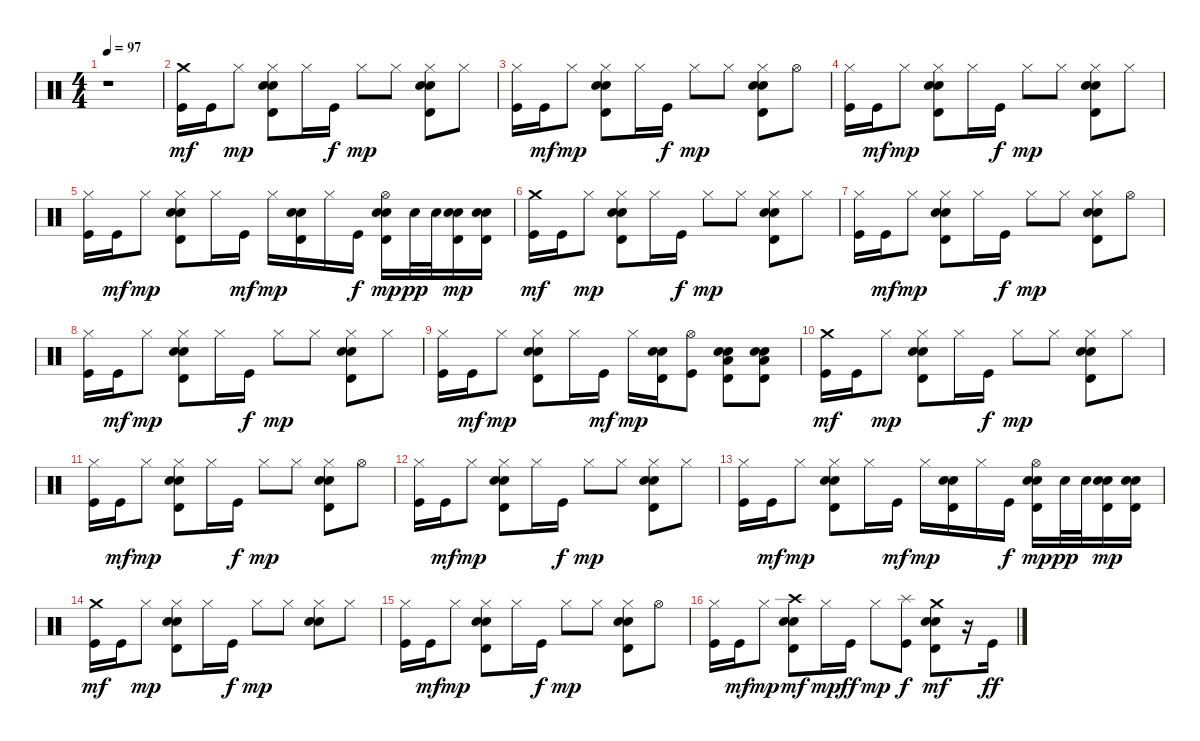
\track "" {instrument percussion}
\staff {score}
\articulation defaults
\ts (4 4)
\section ("" "")
\tempo 97
\clef neutral
\ks c
r.1{dy mf} |
\section ("" "")
("Kick (hit)" "Crash medium (hit)").16 "Kick (hit)".16 "Hi-Hat (closed)".8{dy mp} ("Snare (hit) 2" "Electric Snare (hit)" "Timbale high (hit)" "Hi-Hat (closed)").8 "Hi-Hat (closed)".16 "Kick (hit)".16{dy f} "Hi-Hat (closed)".8{dy mp} "Hi-Hat (closed)".8 ("Snare (hit) 2" "Electric Snare (hit)" "Timbale high (hit)" "Hi-Hat (closed)").8 "Hi-Hat (closed)".8 |
("Kick (hit)" "Hi-Hat (closed)").16 "Kick (hit)".16{dy mf} "Hi-Hat (closed)".8{dy mp} ("Snare (hit) 2" "Electric Snare (hit)" "Timbale high (hit)" "Hi-Hat (closed)").8 "Hi-Hat (closed)".16 "Kick (hit)".16{dy f} "Hi-Hat (closed)".8{dy mp} "Hi-Hat (closed)".8 ("Snare (hit) 2" "Electric Snare (hit)" "Timbale high (hit)" "Hi-Hat (closed)").8 "Hi-Hat (open)".8 |
("Kick (hit)" "Hi-Hat (closed)").16 "Kick (hit)".16{dy mf} "Hi-Hat (closed)".8{dy mp} ("Snare (hit) 2" "Electric Snare (hit)" "Timbale high (hit)" "Hi-Hat (closed)").8 "Hi-Hat (closed)".16 "Kick (hit)".16{dy f} "Hi-Hat (closed)".8{dy mp} "Hi-Hat (closed)".8 ("Snare (hit) 2" "Electric Snare (hit)" "Timbale high (hit)" "Hi-Hat (closed)").8 "Hi-Hat (closed)".8 |
("Kick (hit)" "Hi-Hat (closed)").16 "Kick (hit)".16{dy mf} "Hi-Hat (closed)".8{dy mp} ("Snare (hit) 2" "Electric Snare (hit)" "Timbale high (hit)" "Hi-Hat (closed)").8 "Hi-Hat (closed)".16 "Kick (hit)".16{dy mf} "Hi-Hat (closed)".16{dy mp} ("Snare (hit) 2" "Electric Snare (hit)" "Timbale high (hit)").16 "Hi-Hat (closed)".16 "Kick (hit)".16{dy f} ("Snare (hit) 2" "Electric Snare (hit)" "Timbale high (hit)" "Hi-Hat (open)").16{dy mp} "Snare (hit) 2".32{dy pp} "Snare (hit) 2".32 ("Snare (hit) 2" "Electric Snare (hit)" "Timbale high (hit)").16{dy mp} ("Snare (hit) 2" "Electric Snare (hit)" "Timbale high (hit)").16 |
\section ("" "")
("Kick (hit)" "Crash medium (hit)").16{dy mf} "Kick (hit)".16 "Hi-Hat (closed)".8{dy mp} ("Snare (hit) 2" "Electric Snare (hit)" "Timbale high (hit)" "Hi-Hat (closed)").8 "Hi-Hat (closed)".16 "Kick (hit)".16{dy f} "Hi-Hat (closed)".8{dy mp} "Hi-Hat (closed)".8 ("Snare (hit) 2" "Electric Snare (hit)" "Timbale high (hit)" "Hi-Hat (closed)").8 "Hi-Hat (closed)".8 |
("Kick (hit)" "Hi-Hat (closed)").16 "Kick (hit)".16{dy mf} "Hi-Hat (closed)".8{dy mp} ("Snare (hit) 2" "Electric Snare (hit)" "Timbale high (hit)" "Hi-Hat (closed)").8 "Hi-Hat (closed)".16 "Kick (hit)".16{dy f} "Hi-Hat (closed)".8{dy mp} "Hi-Hat (closed)".8 ("Snare (hit) 2" "Electric Snare (hit)" "Timbale high (hit)" "Hi-Hat (closed)").8 "Hi-Hat (open)".8 |
("Kick (hit)" "Hi-Hat (closed)").16 "Kick (hit)".16{dy mf} "Hi-Hat (closed)".8{dy mp} ("Snare (hit) 2" "Electric Snare (hit)" "Timbale high (hit)" "Hi-Hat (closed)").8 "Hi-Hat (closed)".16 "Kick (hit)".16{dy f} "Hi-Hat (closed)".8{dy mp} "Hi-Hat (closed)".8 ("Snare (hit) 2" "Electric Snare (hit)" "Timbale high (hit)" "Hi-Hat (closed)").8 "Hi-Hat (closed)".8 |
("Kick (hit)" "Hi-Hat (closed)").16 "Kick (hit)".16{dy mf} "Hi-Hat (closed)".8{dy mp} ("Snare (hit) 2" "Electric Snare (hit)" "Timbale high (hit)" "Hi-Hat (closed)").8 "Hi-Hat (closed)".16 "Kick (hit)".16{dy mf} "Hi-Hat (closed)".16{dy mp} ("Snare (hit) 2" "Electric Snare (hit)" "Timbale high (hit)").16 ("Kick (hit)" "Hi-Hat (open)").8 ("Low Tom (hit)" "Snare (hit) 2" "Electric Snare (hit)" "Timbale high (hit)").8 ("Low Tom (hit)" "Snare (hit) 2" "Electric Snare (hit)" "Timbale high (hit)").8 |
\section ("" "")
("Kick (hit)" "Crash medium (hit)").16{dy mf} "Kick (hit)".16 "Hi-Hat (closed)".8{dy mp} ("Snare (hit) 2" "Electric Snare (hit)" "Timbale high (hit)" "Hi-Hat (closed)").8 "Hi-Hat (closed)".16 "Kick (hit)".16{dy f} "Hi-Hat (closed)".8{dy mp} "Hi-Hat (closed)".8 ("Snare (hit) 2" "Electric Snare (hit)" "Timbale high (hit)" "Hi-Hat (closed)").8 "Hi-Hat (closed)".8 |
("Kick (hit)" "Hi-Hat (closed)").16 "Kick (hit)".16{dy mf} "Hi-Hat (closed)".8{dy mp} ("Snare (hit) 2" "Electric Snare (hit)" "Timbale high (hit)" "Hi-Hat (closed)").8 "Hi-Hat (closed)".16 "Kick (hit)".16{dy f} "Hi-Hat (closed)".8{dy mp} "Hi-Hat (closed)".8 ("Snare (hit) 2" "Electric Snare (hit)" "Timbale high (hit)" "Hi-Hat (closed)").8 "Hi-Hat (open)".8 |
("Kick (hit)" "Hi-Hat (closed)").16 "Kick (hit)".16{dy mf} "Hi-Hat (closed)".8{dy mp} ("Snare (hit) 2" "Electric Snare (hit)" "Timbale high (hit)" "Hi-Hat (closed)").8 "Hi-Hat (closed)".16 "Kick (hit)".16{dy f} "Hi-Hat (closed)".8{dy mp} "Hi-Hat (closed)".8 ("Snare (hit) 2" "Electric Snare (hit)" "Timbale high (hit)" "Hi-Hat (closed)").8 "Hi-Hat (closed)".8 |
("Kick (hit)" "Hi-Hat (closed)").16 "Kick (hit)".16{dy mf} "Hi-Hat (closed)".8{dy mp} ("Snare (hit) 2" "Electric Snare (hit)" "Timbale high (hit)" "Hi-Hat (closed)").8 "Hi-Hat (closed)".16 "Kick (hit)".16{dy mf} "Hi-Hat (closed)".16{dy mp} ("Snare (hit) 2" "Electric Snare (hit)" "Timbale high (hit)").16 "Hi-Hat (closed)".16 "Kick (hit)".16{dy f} ("Snare (hit) 2" "Electric Snare (hit)" "Timbale high (hit)" "Hi-Hat (open)").16{dy mp} "Snare (hit) 2".32{dy pp} "Snare (hit) 2".32 ("Snare (hit) 2" "Electric Snare (hit)" "Timbale high (hit)").16{dy mp} ("Snare (hit) 2" "Electric Snare (hit)" "Timbale high (hit)").16 |
\section ("" "")
("Kick (hit)" "Crash medium (hit)").16{dy mf} "Kick (hit)".16 "Hi-Hat (closed)".8{dy mp} ("Snare (hit) 2" "Electric Snare (hit)" "Timbale high (hit)" "Hi-Hat (closed)").8 "Hi-Hat (closed)".16 "Kick (hit)".16{dy f} "Hi-Hat (closed)".8{dy mp} "Hi-Hat (closed)".8 ("Snare (hit) 2" "Electric Snare (hit)" "Hi-Hat (closed)").8 "Hi-Hat (closed)".8 |
("Kick (hit)" "Hi-Hat (closed)").16 "Kick (hit)".16{dy mf} "Hi-Hat (closed)".8{dy mp} ("Snare (hit) 2" "Electric Snare (hit)" "Timbale high (hit)" "Hi-Hat (closed)").8 "Hi-Hat (closed)".16 "Kick (hit)".16{dy f} "Hi-Hat (closed)".8{dy mp} "Hi-Hat (closed)".8 ("Snare (hit) 2" "Electric Snare (hit)" "Timbale high (hit)" "Hi-Hat (closed)").8 "Hi-Hat (open)".8 |
\section ("" "")
("Kick (hit)" "Hi-Hat (closed)").16 "Kick (hit)".16{dy mf} "Hi-Hat (closed)".8{dy mp} ("Snare (hit) 2" "Electric Snare (hit)" "Timbale high (hit)" "Crash high (hit)").8{dy mf} "Hi-Hat (closed)".16{dy mp} "Kick (hit)".16{dy ff} "Hi-Hat (closed)".8{dy mp} ("Kick (hit)" "Splash (hit)").8{dy f} ("Snare (hit) 2" "Electric Snare (hit)" "Timbale high (hit)" "Crash medium (hit)").8{dy mf} r.16 "Kick (hit)".16{dy ff}
